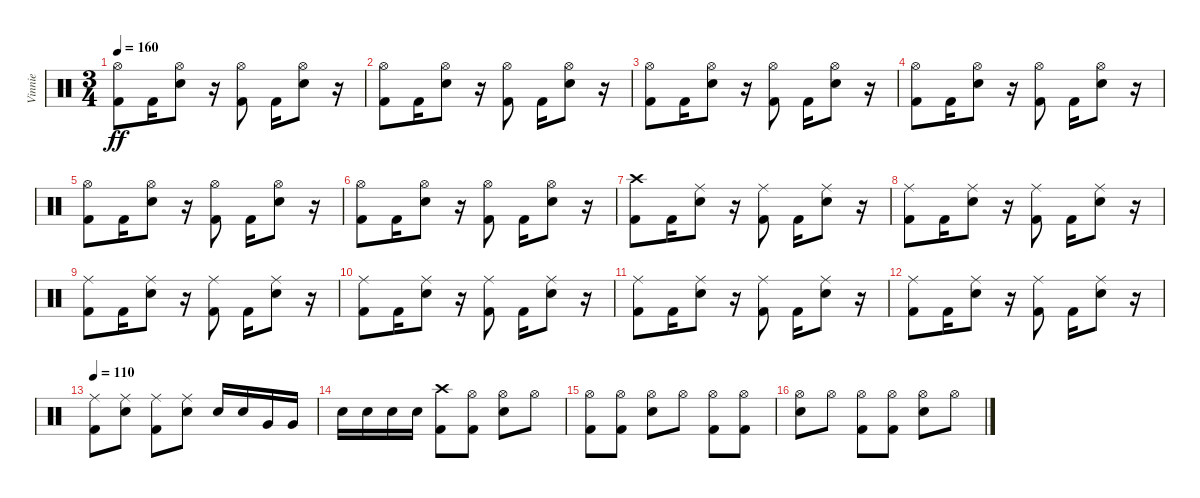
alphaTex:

\track ("Vinnie" "Vinnie") {instrument percussion}
\staff {score}
\articulation defaults
\ts (3 4)
\tempo 160
\clef neutral
\ks c
("Kick (hit) 2" "Hi-Hat (open)").8{dy ff} "Kick (hit) 2".16 ("Electric Snare (hit)" "Hi-Hat (open)").8 r.16 ("Kick (hit) 2" "Hi-Hat (open)").8 "Kick (hit) 2".16 ("Electric Snare (hit)" "Hi-Hat (open)").8 r.16 |
("Kick (hit) 2" "Hi-Hat (open)").8 "Kick (hit) 2".16 ("Electric Snare (hit)" "Hi-Hat (open)").8 r.16 ("Kick (hit) 2" "Hi-Hat (open)").8 "Kick (hit) 2".16 ("Electric Snare (hit)" "Hi-Hat (open)").8 r.16 |
("Kick (hit) 2" "Hi-Hat (open)").8 "Kick (hit) 2".16 ("Electric Snare (hit)" "Hi-Hat (open)").8 r.16 ("Kick (hit) 2" "Hi-Hat (open)").8 "Kick (hit) 2".16 ("Electric Snare (hit)" "Hi-Hat (open)").8 r.16 |
("Kick (hit) 2" "Hi-Hat (open)").8 "Kick (hit) 2".16 ("Electric Snare (hit)" "Hi-Hat (open)").8 r.16 ("Kick (hit) 2" "Hi-Hat (open)").8 "Kick (hit) 2".16 ("Electric Snare (hit)" "Hi-Hat (open)").8 r.16 |
("Kick (hit) 2" "Hi-Hat (open)").8 "Kick (hit) 2".16 ("Electric Snare (hit)" "Hi-Hat (open)").8 r.16 ("Kick (hit) 2" "Hi-Hat (open)").8 "Kick (hit) 2".16 ("Electric Snare (hit)" "Hi-Hat (open)").8 r.16 |
("Kick (hit) 2" "Hi-Hat (open)").8 "Kick (hit) 2".16 ("Electric Snare (hit)" "Hi-Hat (open)").8 r.16 ("Kick (hit) 2" "Hi-Hat (open)").8 "Kick (hit) 2".16 ("Electric Snare (hit)" "Hi-Hat (open)").8 r.16 |
("Kick (hit) 2" "Crash high (hit)").8 "Kick (hit) 2".16 ("Electric Snare (hit)" "Ride (middle)").8 r.16 ("Kick (hit) 2" "Ride (middle)").8 "Kick (hit) 2".16 ("Electric Snare (hit)" "Ride (middle)").8 r.16 |
("Kick (hit) 2" "Ride (middle)").8 "Kick (hit) 2".16 ("Electric Snare (hit)" "Ride (middle)").8 r.16 ("Kick (hit) 2" "Ride (middle)").8 "Kick (hit) 2".16 ("Electric Snare (hit)" "Ride (middle)").8 r.16 |
("Kick (hit) 2" "Ride (middle)").8 "Kick (hit) 2".16 ("Electric Snare (hit)" "Ride (middle)").8 r.16 ("Kick (hit) 2" "Ride (middle)").8 "Kick (hit) 2".16 ("Electric Snare (hit)" "Ride (middle)").8 r.16 |
("Kick (hit) 2" "Ride (middle)").8 "Kick (hit) 2".16 ("Electric Snare (hit)" "Ride (middle)").8 r.16 ("Kick (hit) 2" "Ride (middle)").8 "Kick (hit) 2".16 ("Electric Snare (hit)" "Ride (middle)").8 r.16 |
("Kick (hit) 2" "Ride (middle)").8 "Kick (hit) 2".16 ("Electric Snare (hit)" "Ride (middle)").8 r.16 ("Kick (hit) 2" "Ride (middle)").8 "Kick (hit) 2".16 ("Electric Snare (hit)" "Ride (middle)").8 r.16 |
("Kick (hit) 2" "Ride (middle)").8 "Kick (hit) 2".16 ("Electric Snare (hit)" "Ride (middle)").8 r.16 ("Kick (hit) 2" "Ride (middle)").8 "Kick (hit) 2".16 ("Electric Snare (hit)" "Ride (middle)").8 r.16 |
\tempo 110
("Kick (hit) 2" "Ride (middle)").8 ("Electric Snare (hit)" "Ride (middle)").8 ("Kick (hit) 2" "Ride (middle)").8 ("Electric Snare (hit)" "Ride (middle)").8 "Electric Snare (hit)".16 "Electric Snare (hit)".16 "Very Low Tom (hit)".16 "Very Low Tom (hit)".16 |
"Electric Snare (hit)".16 "Electric Snare (hit)".16 "Electric Snare (hit)".16 "Electric Snare (hit)".16 ("Kick (hit) 2" "Crash high (hit)").8 ("Kick (hit) 2" "Hi-Hat (open)").8 ("Electric Snare (hit)" "Hi-Hat (open)").8 "Hi-Hat (open)".8 |
("Kick (hit) 2" "Hi-Hat (open)").8 ("Kick (hit) 2" "Hi-Hat (open)").8 ("Electric Snare (hit)" "Hi-Hat (open)").8 "Hi-Hat (open)".8 ("Kick (hit) 2" "Hi-Hat (open)").8 ("Kick (hit) 2" "Hi-Hat (open)").8 |
("Electric Snare (hit)" "Hi-Hat (open)").8 "Hi-Hat (open)".8 ("Kick (hit) 2" "Hi-Hat (open)").8 ("Kick (hit) 2" "Hi-Hat (open)").8 ("Electric Snare (hit)" "Hi-Hat (open)").8 "Hi-Hat (open)".8
